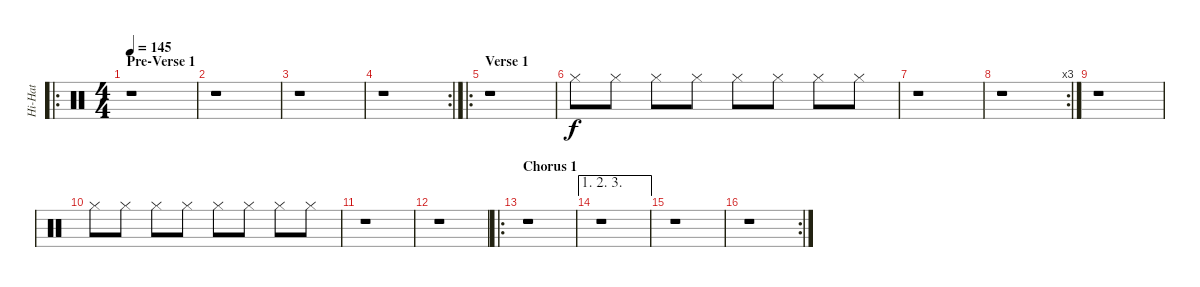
\track ("Hi-Hat" "Hi-Hat") {instrument percussion}
\staff {score}
\articulation defaults
\ro
\ts (4 4)
\section ("" "Pre-Verse 1")
\tempo 145
\clef neutral
\ks c
r.1{dy f} |
r.1 |
r.1 |
\rc 2
r.1 |
\ro
\section ("" "Verse 1")
r.1 |
"Hi-Hat (closed)".8 "Hi-Hat (closed)".8 "Hi-Hat (closed)".8 "Hi-Hat (closed)".8 "Hi-Hat (closed)".8 "Hi-Hat (closed)".8 "Hi-Hat (closed)".8 "Hi-Hat (closed)".8 |
r.1 |
\rc 3
r.1 |
r.1 |
"Hi-Hat (closed)".8 "Hi-Hat (closed)".8 "Hi-Hat (closed)".8 "Hi-Hat (closed)".8 "Hi-Hat (closed)".8 "Hi-Hat (closed)".8 "Hi-Hat (closed)".8 "Hi-Hat (closed)".8 |
r.1 |
r.1 |
\ro
\section ("" "Chorus 1")
r.1 |
\ae (1 2 3)
r.1 |
r.1 |
\rc 2
r.1
